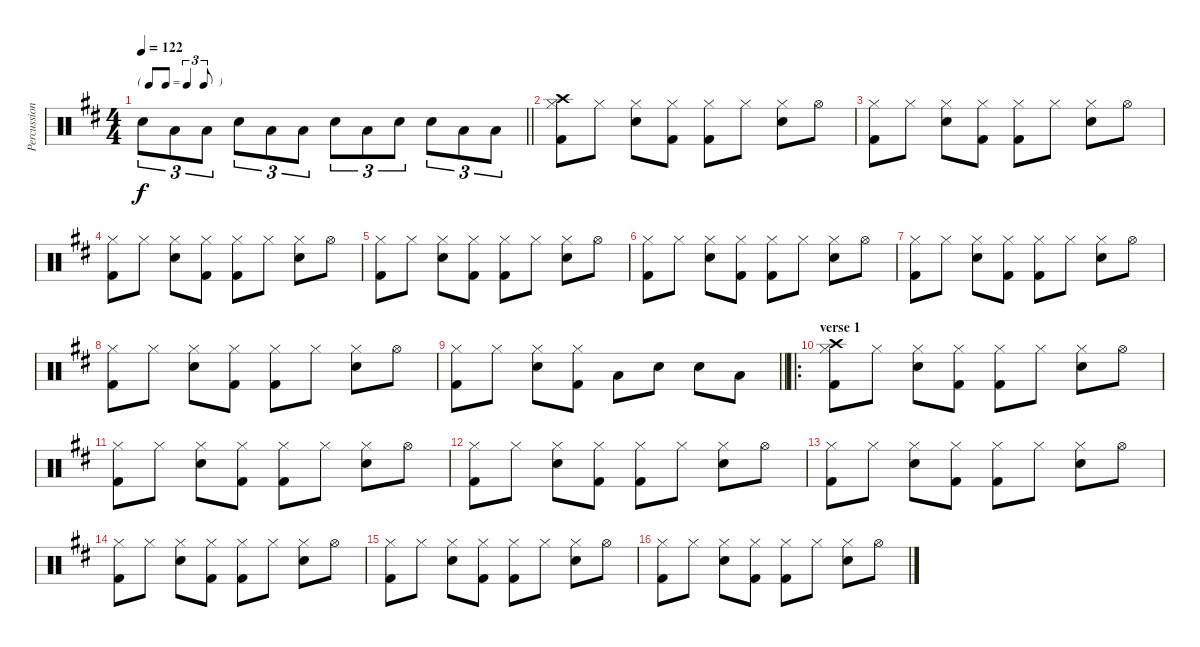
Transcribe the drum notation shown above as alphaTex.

\track ("Percussioni" "Percussion") {instrument percussion}
\staff {score}
\articulation defaults
\ts (4 4)
\tf triplet8th
\tempo 122
\clef neutral
\barLineRight lightlight
\ks d "Electric Snare (hit)".8{tu (3 2) dy f} "Low Tom (hit)".8{tu (3 2)} "Low Tom (hit)".8{tu (3 2)} "Electric Snare (hit)".8{tu (3 2)} "Low Tom (hit)".8{tu (3 2)} "Low Tom (hit)".8{tu (3 2)} "Electric Snare (hit)".8{tu (3 2)} "Low Tom (hit)".8{tu (3 2)} "Electric Snare (hit)".8{tu (3 2)} "Electric Snare (hit)".8{tu (3 2)} "Low Tom (hit)".8{tu (3 2)} "Low Tom (hit)".8{tu (3 2)}
|
("Hi-Hat (closed)" "Kick (hit) 2" "Crash high (hit)").8 "Hi-Hat (closed)".8 ("Hi-Hat (closed)" "Electric Snare (hit)").8 ("Hi-Hat (closed)" "Kick (hit) 2").8 ("Hi-Hat (closed)" "Kick (hit) 2").8 "Hi-Hat (closed)".8 ("Hi-Hat (closed)" "Electric Snare (hit)").8 "Hi-Hat (open)".8 |
("Hi-Hat (closed)" "Kick (hit) 2").8 "Hi-Hat (closed)".8 ("Hi-Hat (closed)" "Electric Snare (hit)").8 ("Hi-Hat (closed)" "Kick (hit) 2").8 ("Hi-Hat (closed)" "Kick (hit) 2").8 "Hi-Hat (closed)".8 ("Hi-Hat (closed)" "Electric Snare (hit)").8 "Hi-Hat (open)".8 |
("Hi-Hat (closed)" "Kick (hit) 2").8 "Hi-Hat (closed)".8 ("Hi-Hat (closed)" "Electric Snare (hit)").8 ("Hi-Hat (closed)" "Kick (hit) 2").8 ("Hi-Hat (closed)" "Kick (hit) 2").8 "Hi-Hat (closed)".8 ("Hi-Hat (closed)" "Electric Snare (hit)").8 "Hi-Hat (open)".8 |
("Hi-Hat (closed)" "Kick (hit) 2").8 "Hi-Hat (closed)".8 ("Hi-Hat (closed)" "Electric Snare (hit)").8 ("Hi-Hat (closed)" "Kick (hit) 2").8 ("Hi-Hat (closed)" "Kick (hit) 2").8 "Hi-Hat (closed)".8 ("Hi-Hat (closed)" "Electric Snare (hit)").8 "Hi-Hat (open)".8 |
("Hi-Hat (closed)" "Kick (hit) 2").8 "Hi-Hat (closed)".8 ("Hi-Hat (closed)" "Electric Snare (hit)").8 ("Hi-Hat (closed)" "Kick (hit) 2").8 ("Hi-Hat (closed)" "Kick (hit) 2").8 "Hi-Hat (closed)".8 ("Hi-Hat (closed)" "Electric Snare (hit)").8 "Hi-Hat (open)".8 |
("Hi-Hat (closed)" "Kick (hit) 2").8 "Hi-Hat (closed)".8 ("Hi-Hat (closed)" "Electric Snare (hit)").8 ("Hi-Hat (closed)" "Kick (hit) 2").8 ("Hi-Hat (closed)" "Kick (hit) 2").8 "Hi-Hat (closed)".8 ("Hi-Hat (closed)" "Electric Snare (hit)").8 "Hi-Hat (open)".8 |
("Hi-Hat (closed)" "Kick (hit) 2").8 "Hi-Hat (closed)".8 ("Hi-Hat (closed)" "Electric Snare (hit)").8 ("Hi-Hat (closed)" "Kick (hit) 2").8 ("Hi-Hat (closed)" "Kick (hit) 2").8 "Hi-Hat (closed)".8 ("Hi-Hat (closed)" "Electric Snare (hit)").8 "Hi-Hat (open)".8 |
\barLineRight lightlight
("Hi-Hat (closed)" "Kick (hit) 2").8 "Hi-Hat (closed)".8 ("Hi-Hat (closed)" "Electric Snare (hit)").8 ("Hi-Hat (closed)" "Kick (hit) 2").8 "Low Tom (hit)".8 "Electric Snare (hit)".8 "Electric Snare (hit)".8 "Low Tom (hit)".8 |
\ro
\section ("" "verse 1")
("Hi-Hat (closed)" "Kick (hit) 2" "Crash high (hit)").8 "Hi-Hat (closed)".8 ("Hi-Hat (closed)" "Electric Snare (hit)").8 ("Hi-Hat (closed)" "Kick (hit) 2").8 ("Hi-Hat (closed)" "Kick (hit) 2").8 "Hi-Hat (closed)".8 ("Hi-Hat (closed)" "Electric Snare (hit)").8 "Hi-Hat (open)".8 |
("Hi-Hat (closed)" "Kick (hit) 2").8 "Hi-Hat (closed)".8 ("Hi-Hat (closed)" "Electric Snare (hit)").8 ("Hi-Hat (closed)" "Kick (hit) 2").8 ("Hi-Hat (closed)" "Kick (hit) 2").8 "Hi-Hat (closed)".8 ("Hi-Hat (closed)" "Electric Snare (hit)").8 "Hi-Hat (open)".8 |
("Hi-Hat (closed)" "Kick (hit) 2").8 "Hi-Hat (closed)".8 ("Hi-Hat (closed)" "Electric Snare (hit)").8 ("Hi-Hat (closed)" "Kick (hit) 2").8 ("Hi-Hat (closed)" "Kick (hit) 2").8 "Hi-Hat (closed)".8 ("Hi-Hat (closed)" "Electric Snare (hit)").8 "Hi-Hat (open)".8 |
("Hi-Hat (closed)" "Kick (hit) 2").8 "Hi-Hat (closed)".8 ("Hi-Hat (closed)" "Electric Snare (hit)").8 ("Hi-Hat (closed)" "Kick (hit) 2").8 ("Hi-Hat (closed)" "Kick (hit) 2").8 "Hi-Hat (closed)".8 ("Hi-Hat (closed)" "Electric Snare (hit)").8 "Hi-Hat (open)".8 |
("Hi-Hat (closed)" "Kick (hit) 2").8 "Hi-Hat (closed)".8 ("Hi-Hat (closed)" "Electric Snare (hit)").8 ("Hi-Hat (closed)" "Kick (hit) 2").8 ("Hi-Hat (closed)" "Kick (hit) 2").8 "Hi-Hat (closed)".8 ("Hi-Hat (closed)" "Electric Snare (hit)").8 "Hi-Hat (open)".8 |
("Hi-Hat (closed)" "Kick (hit) 2").8 "Hi-Hat (closed)".8 ("Hi-Hat (closed)" "Electric Snare (hit)").8 ("Hi-Hat (closed)" "Kick (hit) 2").8 ("Hi-Hat (closed)" "Kick (hit) 2").8 "Hi-Hat (closed)".8 ("Hi-Hat (closed)" "Electric Snare (hit)").8 "Hi-Hat (open)".8 |
("Hi-Hat (closed)" "Kick (hit) 2").8 "Hi-Hat (closed)".8 ("Hi-Hat (closed)" "Electric Snare (hit)").8 ("Hi-Hat (closed)" "Kick (hit) 2").8 ("Hi-Hat (closed)" "Kick (hit) 2").8 "Hi-Hat (closed)".8 ("Hi-Hat (closed)" "Electric Snare (hit)").8 "Hi-Hat (open)".8
